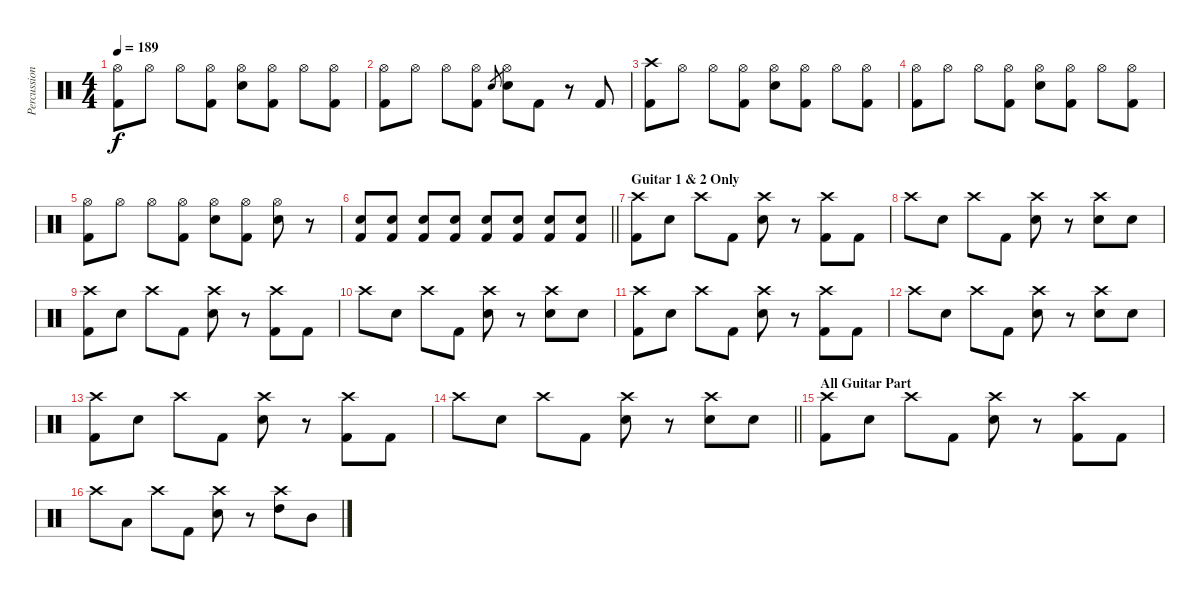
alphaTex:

\track ("Percussion" "Percussion") {instrument percussion}
\staff {score}
\articulation defaults
\ts (4 4)
\tempo 189
\clef neutral
\ks c
("Hi-Hat (open)" "Kick (hit) 2").8{dy f} "Hi-Hat (open)".8 "Hi-Hat (open)".8 ("Hi-Hat (open)" "Kick (hit) 2").8 ("Hi-Hat (open)" "Electric Snare (hit)").8 ("Hi-Hat (open)" "Kick (hit) 2").8 "Hi-Hat (open)".8 ("Hi-Hat (open)" "Kick (hit) 2").8 |
("Hi-Hat (open)" "Kick (hit) 2").8 "Hi-Hat (open)".8 "Hi-Hat (open)".8 ("Hi-Hat (open)" "Kick (hit) 2").8 "Electric Snare (hit)".8{gr} ("Hi-Hat (open)" "Electric Snare (hit)").8 "Kick (hit) 2".8 r.8 "Kick (hit) 2".8 |
("Crash high (hit)" "Kick (hit) 2").8 "Hi-Hat (open)".8 "Hi-Hat (open)".8 ("Hi-Hat (open)" "Kick (hit) 2").8 ("Hi-Hat (open)" "Electric Snare (hit)").8 ("Hi-Hat (open)" "Kick (hit) 2").8 "Hi-Hat (open)".8 ("Hi-Hat (open)" "Kick (hit) 2").8 |
("Hi-Hat (open)" "Kick (hit) 2").8 "Hi-Hat (open)".8 "Hi-Hat (open)".8 ("Hi-Hat (open)" "Kick (hit) 2").8 ("Hi-Hat (open)" "Electric Snare (hit)").8 ("Hi-Hat (open)" "Kick (hit) 2").8 "Hi-Hat (open)".8 ("Hi-Hat (open)" "Kick (hit) 2").8 |
("Hi-Hat (open)" "Kick (hit) 2").8 "Hi-Hat (open)".8 "Hi-Hat (open)".8 ("Hi-Hat (open)" "Kick (hit) 2").8 ("Hi-Hat (open)" "Electric Snare (hit)").8 ("Hi-Hat (open)" "Kick (hit) 2").8 ("Hi-Hat (open)" "Electric Snare (hit)").8 r.8 |
\barLineRight lightlight
("Electric Snare (hit)" "Kick (hit) 2").8 ("Electric Snare (hit)" "Kick (hit) 2").8 ("Electric Snare (hit)" "Kick (hit) 2").8 ("Electric Snare (hit)" "Kick (hit) 2").8 ("Electric Snare (hit)" "Kick (hit) 2").8 ("Electric Snare (hit)" "Kick (hit) 2").8 ("Electric Snare (hit)" "Kick (hit) 2").8 ("Electric Snare (hit)" "Kick (hit) 2").8 |
\section ("" "Guitar 1 & 2 Only")
("Crash high (hit)" "Kick (hit) 2").8 "Electric Snare (hit)".8 "Crash high (hit)".8 "Kick (hit) 2".8 ("Crash high (hit)" "Electric Snare (hit)").8 r.8 ("Crash high (hit)" "Kick (hit) 2").8 "Kick (hit) 2".8 |
"Crash high (hit)".8 "Electric Snare (hit)".8 "Crash high (hit)".8 "Kick (hit) 2".8 ("Crash high (hit)" "Electric Snare (hit)").8 r.8 ("Crash high (hit)" "Electric Snare (hit)").8 "Electric Snare (hit)".8 |
("Crash high (hit)" "Kick (hit) 2").8 "Electric Snare (hit)".8 "Crash high (hit)".8 "Kick (hit) 2".8 ("Crash high (hit)" "Electric Snare (hit)").8 r.8 ("Crash high (hit)" "Kick (hit) 2").8 "Kick (hit) 2".8 |
"Crash high (hit)".8 "Electric Snare (hit)".8 "Crash high (hit)".8 "Kick (hit) 2".8 ("Crash high (hit)" "Electric Snare (hit)").8 r.8 ("Crash high (hit)" "Electric Snare (hit)").8 "Electric Snare (hit)".8 |
("Crash high (hit)" "Kick (hit) 2").8 "Electric Snare (hit)".8 "Crash high (hit)".8 "Kick (hit) 2".8 ("Crash high (hit)" "Electric Snare (hit)").8 r.8 ("Crash high (hit)" "Kick (hit) 2").8 "Kick (hit) 2".8 |
"Crash high (hit)".8 "Electric Snare (hit)".8 "Crash high (hit)".8 "Kick (hit) 2".8 ("Crash high (hit)" "Electric Snare (hit)").8 r.8 ("Crash high (hit)" "Electric Snare (hit)").8 "Electric Snare (hit)".8 |
("Crash high (hit)" "Kick (hit) 2").8 "Electric Snare (hit)".8 "Crash high (hit)".8 "Kick (hit) 2".8 ("Crash high (hit)" "Electric Snare (hit)").8 r.8 ("Crash high (hit)" "Kick (hit) 2").8 "Kick (hit) 2".8 |
\barLineRight lightlight "Crash high (hit)".8 "Electric Snare (hit)".8 "Crash high (hit)".8 "Kick (hit) 2".8
("Crash high (hit)" "Electric Snare (hit)").8 r.8 ("Crash high (hit)" "Electric Snare (hit)").8 "Electric Snare (hit)".8 |
\section ("" "All Guitar Part")
("Crash high (hit)" "Kick (hit) 2").8 "Electric Snare (hit)".8 "Crash high (hit)".8 "Kick (hit) 2".8 ("Crash high (hit)" "Electric Snare (hit)").8 r.8 ("Crash high (hit)" "Kick (hit) 2").8 "Kick (hit) 2".8 |
"Crash high (hit)".8 "Low Tom (hit)".8 "Crash high (hit)".8 "Kick (hit) 2".8 ("Crash high (hit)" "Electric Snare (hit)").8 r.8 ("Crash high (hit)" "High Tom (hit)").8 "Mid Tom (hit)".8
